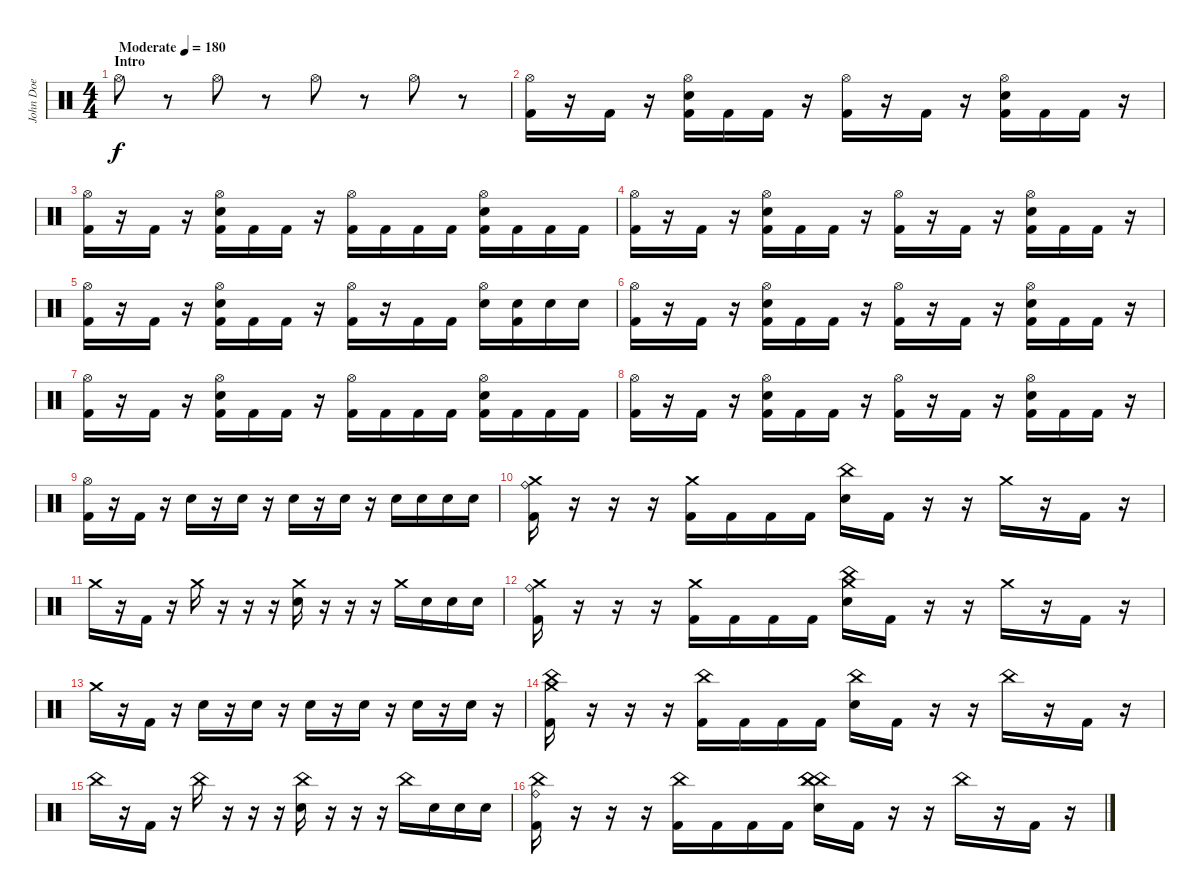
\track ("John Doe" "John Doe") {instrument percussion}
\staff {score}
\articulation defaults
\ts (4 4)
\section ("" "Intro")
\tempo (180 "Moderate")
\clef neutral
\ks c "Hi-Hat (open)".8{dy f}
r.8 "Hi-Hat (open)".8 r.8 "Hi-Hat (open)".8 r.8 "Hi-Hat (open)".8 r.8 |
("Hi-Hat (open)" "Kick (hit) 2").16 r.16 "Kick (hit) 2".16 r.16 ("Hi-Hat (open)" "Electric Snare (hit)" "Kick (hit) 2").16 "Kick (hit) 2".16 "Kick (hit) 2".16 r.16 ("Hi-Hat (open)" "Kick (hit) 2").16 r.16 "Kick (hit) 2".16 r.16 ("Hi-Hat (open)" "Electric Snare (hit)" "Kick (hit) 2").16 "Kick (hit) 2".16 "Kick (hit) 2".16 r.16 |
("Hi-Hat (open)" "Kick (hit) 2").16 r.16 "Kick (hit) 2".16 r.16 ("Hi-Hat (open)" "Electric Snare (hit)" "Kick (hit) 2").16 "Kick (hit) 2".16 "Kick (hit) 2".16 r.16 ("Hi-Hat (open)" "Kick (hit) 2").16 "Kick (hit) 2".16 "Kick (hit) 2".16 "Kick (hit) 2".16 ("Hi-Hat (open)" "Electric Snare (hit)" "Kick (hit) 2").16 "Kick (hit) 2".16 "Kick (hit) 2".16 "Kick (hit) 2".16 |
("Hi-Hat (open)" "Kick (hit) 2").16 r.16 "Kick (hit) 2".16 r.16 ("Hi-Hat (open)" "Electric Snare (hit)" "Kick (hit) 2").16 "Kick (hit) 2".16 "Kick (hit) 2".16 r.16 ("Hi-Hat (open)" "Kick (hit) 2").16 r.16 "Kick (hit) 2".16 r.16 ("Hi-Hat (open)" "Electric Snare (hit)" "Kick (hit) 2").16 "Kick (hit) 2".16 "Kick (hit) 2".16 r.16 |
("Hi-Hat (open)" "Kick (hit) 2").16 r.16 "Kick (hit) 2".16 r.16 ("Hi-Hat (open)" "Electric Snare (hit)" "Kick (hit) 2").16 "Kick (hit) 2".16 "Kick (hit) 2".16 r.16 ("Hi-Hat (open)" "Kick (hit) 2").16 r.16 "Kick (hit) 2".16 "Kick (hit) 2".16 ("Hi-Hat (open)" "Electric Snare (hit)").16 ("Electric Snare (hit)" "Kick (hit) 2").16 "Electric Snare (hit)".16 "Electric Snare (hit)".16 |
("Hi-Hat (open)" "Kick (hit) 2").16 r.16 "Kick (hit) 2".16 r.16 ("Hi-Hat (open)" "Electric Snare (hit)" "Kick (hit) 2").16 "Kick (hit) 2".16 "Kick (hit) 2".16 r.16 ("Hi-Hat (open)" "Kick (hit) 2").16 r.16 "Kick (hit) 2".16 r.16 ("Hi-Hat (open)" "Electric Snare (hit)" "Kick (hit) 2").16 "Kick (hit) 2".16 "Kick (hit) 2".16 r.16 |
("Hi-Hat (open)" "Kick (hit) 2").16 r.16 "Kick (hit) 2".16 r.16 ("Hi-Hat (open)" "Electric Snare (hit)" "Kick (hit) 2").16 "Kick (hit) 2".16 "Kick (hit) 2".16 r.16 ("Hi-Hat (open)" "Kick (hit) 2").16 "Kick (hit) 2".16 "Kick (hit) 2".16 "Kick (hit) 2".16 ("Hi-Hat (open)" "Electric Snare (hit)" "Kick (hit) 2").16 "Kick (hit) 2".16 "Kick (hit) 2".16 "Kick (hit) 2".16 |
("Hi-Hat (open)" "Kick (hit) 2").16 r.16 "Kick (hit) 2".16 r.16 ("Hi-Hat (open)" "Electric Snare (hit)" "Kick (hit) 2").16 "Kick (hit) 2".16 "Kick (hit) 2".16 r.16 ("Hi-Hat (open)" "Kick (hit) 2").16 r.16 "Kick (hit) 2".16 r.16 ("Hi-Hat (open)" "Electric Snare (hit)" "Kick (hit) 2").16 "Kick (hit) 2".16 "Kick (hit) 2".16 r.16 |
("Hi-Hat (open)" "Kick (hit) 2").16 r.16 "Kick (hit) 2".16 r.16 "Electric Snare (hit)".16 r.16 "Electric Snare (hit)".16 r.16 "Electric Snare (hit)".16 r.16 "Electric Snare (hit)".16 r.16 "Electric Snare (hit)".16 "Electric Snare (hit)".16 "Electric Snare (hit)".16 "Electric Snare (hit)".16 |
("Ride (bell)" "Crash medium (hit)" "Kick (hit) 2").16 r.16 r.16 r.16 ("Crash medium (hit)" "Kick (hit) 2").16 "Kick (hit) 2".16 "Kick (hit) 2".16 "Kick (hit) 2".16 ("China (hit)" "Electric Snare (hit)").16 "Kick (hit) 2".16 r.16 r.16 "Crash medium (hit)".16 r.16 "Kick (hit) 2".16 r.16 |
"Crash medium (hit)".16 r.16 "Kick (hit) 2".16 r.16 "Crash medium (hit)".16 r.16 r.16 r.16 ("Crash medium (hit)" "Electric Snare (hit)").16 r.16 r.16 r.16 "Crash medium (hit)".16 "Electric Snare (hit)".16 "Electric Snare (hit)".16 "Electric Snare (hit)".16 |
("Ride (bell)" "Crash medium (hit)" "Kick (hit) 2").16 r.16 r.16 r.16 ("Crash medium (hit)" "Kick (hit) 2").16 "Kick (hit) 2".16 "Kick (hit) 2".16 "Kick (hit) 2".16 ("China (hit)" "Crash medium (hit)" "Electric Snare (hit)").16 "Kick (hit) 2".16 r.16 r.16 "Crash medium (hit)".16 r.16 "Kick (hit) 2".16 r.16 |
"Crash medium (hit)".16 r.16 "Kick (hit) 2".16 r.16 "Electric Snare (hit)".16 r.16 "Electric Snare (hit)".16 r.16 "Electric Snare (hit)".16 r.16 "Electric Snare (hit)".16 r.16 "Electric Snare (hit)".16 r.16 "Electric Snare (hit)".16 r.16 |
("Crash medium (hit)" "China (hit)" "Kick (hit) 2").16 r.16 r.16 r.16 ("China (hit)" "Kick (hit) 2").16 "Kick (hit) 2".16 "Kick (hit) 2".16 "Kick (hit) 2".16 ("China (hit)" "Electric Snare (hit)").16 "Kick (hit) 2".16 r.16 r.16 "China (hit)".16 r.16 "Kick (hit) 2".16 r.16 |
"China (hit)".16 r.16 "Kick (hit) 2".16 r.16 "China (hit)".16 r.16 r.16 r.16 ("China (hit)" "Electric Snare (hit)").16 r.16 r.16 r.16 "China (hit)".16 "Electric Snare (hit)".16 "Electric Snare (hit)".16 "Electric Snare (hit)".16 |
("Ride (bell)" "China (hit)" "Kick (hit) 2").16 r.16 r.16 r.16 ("China (hit)" "Kick (hit) 2").16 "Kick (hit) 2".16 "Kick (hit) 2".16 "Kick (hit) 2".16 ("China (hit)" "China (hit)" "China (hit)" "Electric Snare (hit)").16 "Kick (hit) 2".16 r.16 r.16 "China (hit)".16 r.16 "Kick (hit) 2".16 r.16
